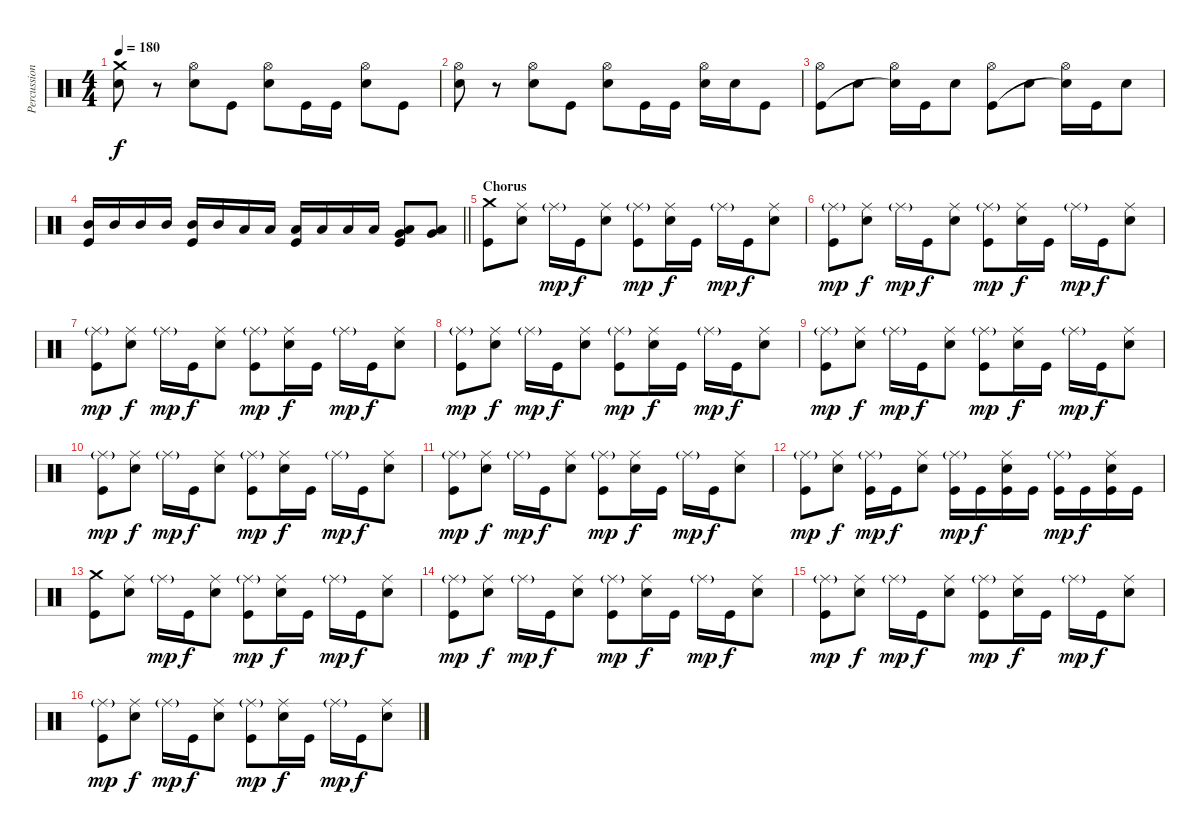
\track ("Percussion" "Percussion") {instrument percussion}
\staff {score}
\articulation defaults
\ts (4 4)
\tempo 180
\clef neutral
\ks c
("Crash medium (hit)" "Electric Snare (hit)").8{dy f} r.8 ("Hi-Hat (open)" "Electric Snare (hit)").8 "Kick (hit)".8 ("Hi-Hat (open)" "Electric Snare (hit)").8 "Kick (hit)".16 "Kick (hit)".16 ("Hi-Hat (open)" "Electric Snare (hit)").8 "Kick (hit)".8 |
("Hi-Hat (open)" "Electric Snare (hit)").8 r.8 ("Hi-Hat (open)" "Electric Snare (hit)").8 "Kick (hit)".8 ("Hi-Hat (open)" "Electric Snare (hit)").8 "Kick (hit)".16 "Kick (hit)".16 ("Hi-Hat (open)" "Electric Snare (hit)").16 "Electric Snare (hit)".16 "Kick (hit)".8 |
("Hi-Hat (open)" "Kick (hit)").8 "Electric Snare (hit)".8 ("Hi-Hat (open)" "Snare (hit)"{t}).16 "Kick (hit)".16 "Electric Snare (hit)".8 ("Hi-Hat (open)" "Kick (hit)").8 "Electric Snare (hit)".8 ("Hi-Hat (open)" "Snare (hit)"{t}).16 "Kick (hit)".16 "Electric Snare (hit)".8 |
\barLineRight lightlight
("Mid Tom (hit)" "Kick (hit)").16 "Mid Tom (hit)".16 "Mid Tom (hit)".16 "Mid Tom (hit)".16 ("Mid Tom (hit)" "Kick (hit)").16 "Mid Tom (hit)".16 "Low Tom (hit)".16 "Low Tom (hit)".16 ("Low Tom (hit)" "Kick (hit)").16 "Low Tom (hit)".16 "Low Tom (hit)".16 "Low Tom (hit)".16 ("Very Low Tom (hit)" "Low Floor Tom (hit)" "Kick (hit)").8 ("Very Low Tom (hit)" "Low Floor Tom (hit)").8 |
\section ("" "Chorus")
("Crash medium (hit)" "Kick (hit)").8 ("Ride (middle)" "Electric Snare (hit)").8 "Ride (middle)"{g}.16{dy mp} "Kick (hit)".16{dy f} ("Ride (middle)" "Electric Snare (hit)").8 ("Ride (middle)"{g} "Kick (hit)").8{dy mp} ("Ride (middle)" "Electric Snare (hit)").16{dy f} "Kick (hit)".16 "Ride (middle)"{g}.16{dy mp} "Kick (hit)".16{dy f} ("Ride (middle)" "Electric Snare (hit)").8 |
("Ride (middle)"{g} "Kick (hit)").8{dy mp} ("Ride (middle)" "Electric Snare (hit)").8{dy f} "Ride (middle)"{g}.16{dy mp} "Kick (hit)".16{dy f} ("Ride (middle)" "Electric Snare (hit)").8 ("Ride (middle)"{g} "Kick (hit)").8{dy mp} ("Ride (middle)" "Electric Snare (hit)").16{dy f} "Kick (hit)".16 "Ride (middle)"{g}.16{dy mp} "Kick (hit)".16{dy f} ("Ride (middle)" "Electric Snare (hit)").8 |
("Ride (middle)"{g} "Kick (hit)").8{dy mp} ("Ride (middle)" "Electric Snare (hit)").8{dy f} "Ride (middle)"{g}.16{dy mp} "Kick (hit)".16{dy f} ("Ride (middle)" "Electric Snare (hit)").8 ("Ride (middle)"{g} "Kick (hit)").8{dy mp} ("Ride (middle)" "Electric Snare (hit)").16{dy f} "Kick (hit)".16 "Ride (middle)"{g}.16{dy mp} "Kick (hit)".16{dy f} ("Ride (middle)" "Electric Snare (hit)").8 |
("Ride (middle)"{g} "Kick (hit)").8{dy mp} ("Ride (middle)" "Electric Snare (hit)").8{dy f} "Ride (middle)"{g}.16{dy mp} "Kick (hit)".16{dy f} ("Ride (middle)" "Electric Snare (hit)").8 ("Ride (middle)"{g} "Kick (hit)").8{dy mp} ("Ride (middle)" "Electric Snare (hit)").16{dy f} "Kick (hit)".16 "Ride (middle)"{g}.16{dy mp} "Kick (hit)".16{dy f} ("Ride (middle)" "Electric Snare (hit)").8 |
("Ride (middle)"{g} "Kick (hit)").8{dy mp} ("Ride (middle)" "Electric Snare (hit)").8{dy f} "Ride (middle)"{g}.16{dy mp} "Kick (hit)".16{dy f} ("Ride (middle)" "Electric Snare (hit)").8 ("Ride (middle)"{g} "Kick (hit)").8{dy mp} ("Ride (middle)" "Electric Snare (hit)").16{dy f} "Kick (hit)".16 "Ride (middle)"{g}.16{dy mp} "Kick (hit)".16{dy f} ("Ride (middle)" "Electric Snare (hit)").8 |
("Ride (middle)"{g} "Kick (hit)").8{dy mp} ("Ride (middle)" "Electric Snare (hit)").8{dy f} "Ride (middle)"{g}.16{dy mp} "Kick (hit)".16{dy f} ("Ride (middle)" "Electric Snare (hit)").8 ("Ride (middle)"{g} "Kick (hit)").8{dy mp} ("Ride (middle)" "Electric Snare (hit)").16{dy f} "Kick (hit)".16 "Ride (middle)"{g}.16{dy mp} "Kick (hit)".16{dy f} ("Ride (middle)" "Electric Snare (hit)").8 |
("Ride (middle)"{g} "Kick (hit)").8{dy mp} ("Ride (middle)" "Electric Snare (hit)").8{dy f} "Ride (middle)"{g}.16{dy mp} "Kick (hit)".16{dy f} ("Ride (middle)" "Electric Snare (hit)").8 ("Ride (middle)"{g} "Kick (hit)").8{dy mp} ("Ride (middle)" "Electric Snare (hit)").16{dy f} "Kick (hit)".16 "Ride (middle)"{g}.16{dy mp} "Kick (hit)".16{dy f} ("Ride (middle)" "Electric Snare (hit)").8 |
("Ride (middle)"{g} "Kick (hit)").8{dy mp} ("Ride (middle)" "Electric Snare (hit)").8{dy f} ("Ride (middle)"{g} "Kick (hit)").16{dy mp} "Kick (hit)".16{dy f} ("Ride (middle)" "Electric Snare (hit)").8 ("Ride (middle)"{g} "Kick (hit)").16{dy mp} "Kick (hit)".16{dy f} ("Ride (middle)" "Electric Snare (hit)" "Kick (hit)").16 "Kick (hit)".16 ("Ride (middle)"{g} "Kick (hit)").16{dy mp} "Kick (hit)".16{dy f} ("Ride (middle)" "Electric Snare (hit)" "Kick (hit)").16 "Kick (hit)".16 |
("Crash medium (hit)" "Kick (hit)").8 ("Ride (middle)" "Electric Snare (hit)").8 "Ride (middle)"{g}.16{dy mp} "Kick (hit)".16{dy f} ("Ride (middle)" "Electric Snare (hit)").8 ("Ride (middle)"{g} "Kick (hit)").8{dy mp} ("Ride (middle)" "Electric Snare (hit)").16{dy f} "Kick (hit)".16 "Ride (middle)"{g}.16{dy mp} "Kick (hit)".16{dy f} ("Ride (middle)" "Electric Snare (hit)").8 |
("Ride (middle)"{g} "Kick (hit)").8{dy mp} ("Ride (middle)" "Electric Snare (hit)").8{dy f} "Ride (middle)"{g}.16{dy mp} "Kick (hit)".16{dy f} ("Ride (middle)" "Electric Snare (hit)").8 ("Ride (middle)"{g} "Kick (hit)").8{dy mp} ("Ride (middle)" "Electric Snare (hit)").16{dy f} "Kick (hit)".16 "Ride (middle)"{g}.16{dy mp} "Kick (hit)".16{dy f} ("Ride (middle)" "Electric Snare (hit)").8 |
("Ride (middle)"{g} "Kick (hit)").8{dy mp} ("Ride (middle)" "Electric Snare (hit)").8{dy f} "Ride (middle)"{g}.16{dy mp} "Kick (hit)".16{dy f} ("Ride (middle)" "Electric Snare (hit)").8 ("Ride (middle)"{g} "Kick (hit)").8{dy mp} ("Ride (middle)" "Electric Snare (hit)").16{dy f} "Kick (hit)".16 "Ride (middle)"{g}.16{dy mp} "Kick (hit)".16{dy f} ("Ride (middle)" "Electric Snare (hit)").8 |
("Ride (middle)"{g} "Kick (hit)").8{dy mp} ("Ride (middle)" "Electric Snare (hit)").8{dy f} "Ride (middle)"{g}.16{dy mp} "Kick (hit)".16{dy f} ("Ride (middle)" "Electric Snare (hit)").8 ("Ride (middle)"{g} "Kick (hit)").8{dy mp} ("Ride (middle)" "Electric Snare (hit)").16{dy f} "Kick (hit)".16 "Ride (middle)"{g}.16{dy mp} "Kick (hit)".16{dy f} ("Ride (middle)" "Electric Snare (hit)").8
